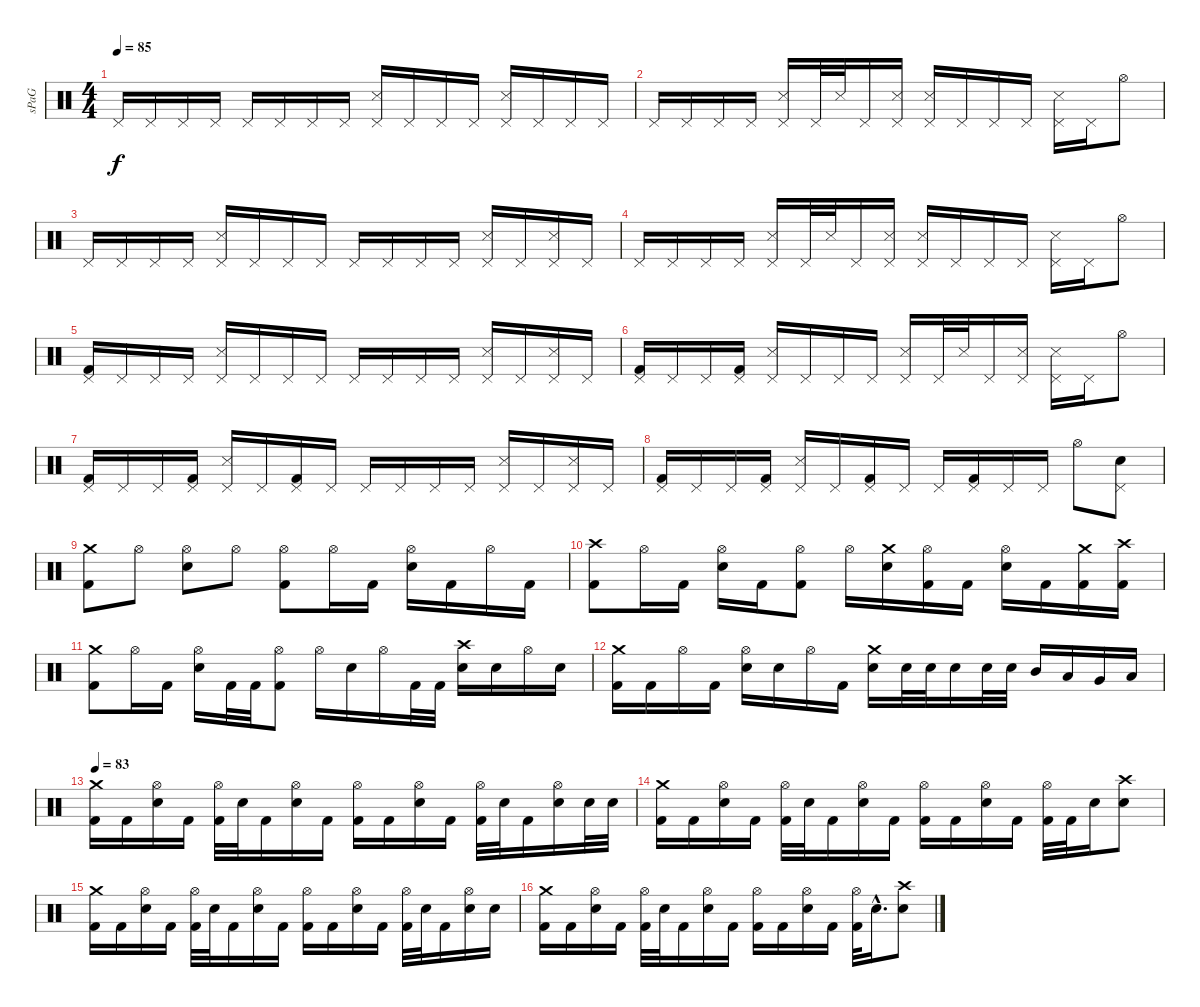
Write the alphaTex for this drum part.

\track ("sPaG" "sPaG") {instrument percussion}
\staff {score}
\articulation defaults
\ts (4 4)
\tempo 85
\clef neutral
\ks c "Pedal Hi-Hat (hit)".16{dy f} "Pedal Hi-Hat (hit)".16 "Pedal Hi-Hat (hit)".16 "Pedal Hi-Hat (hit)".16 "Pedal Hi-Hat (hit)".16 "Pedal Hi-Hat (hit)".16 "Pedal Hi-Hat (hit)".16 "Pedal Hi-Hat (hit)".16
("Pedal Hi-Hat (hit)" "Snare (side stick) 3").16 "Pedal Hi-Hat (hit)".16 "Pedal Hi-Hat (hit)".16 "Pedal Hi-Hat (hit)".16 ("Pedal Hi-Hat (hit)" "Snare (side stick) 3").16 "Pedal Hi-Hat (hit)".16 "Pedal Hi-Hat (hit)".16 "Pedal Hi-Hat (hit)".16 |
"Pedal Hi-Hat (hit)".16 "Pedal Hi-Hat (hit)".16 "Pedal Hi-Hat (hit)".16 "Pedal Hi-Hat (hit)".16 ("Pedal Hi-Hat (hit)" "Snare (side stick) 3").16 "Pedal Hi-Hat (hit)".32 "Snare (side stick) 3".32 "Pedal Hi-Hat (hit)".16 ("Pedal Hi-Hat (hit)" "Snare (side stick) 3").16 ("Pedal Hi-Hat (hit)" "Snare (side stick) 3").16 "Pedal Hi-Hat (hit)".16 "Pedal Hi-Hat (hit)".16 "Pedal Hi-Hat (hit)".16 ("Pedal Hi-Hat (hit)" "Snare (side stick) 3").16 "Pedal Hi-Hat (hit)".16 "Hi-Hat (open)".8 |
"Pedal Hi-Hat (hit)".16 "Pedal Hi-Hat (hit)".16 "Pedal Hi-Hat (hit)".16 "Pedal Hi-Hat (hit)".16 ("Pedal Hi-Hat (hit)" "Snare (side stick) 3").16 "Pedal Hi-Hat (hit)".16 "Pedal Hi-Hat (hit)".16 "Pedal Hi-Hat (hit)".16 "Pedal Hi-Hat (hit)".16 "Pedal Hi-Hat (hit)".16 "Pedal Hi-Hat (hit)".16 "Pedal Hi-Hat (hit)".16 ("Pedal Hi-Hat (hit)" "Snare (side stick) 3").16 "Pedal Hi-Hat (hit)".16 ("Pedal Hi-Hat (hit)" "Snare (side stick) 3").16 "Pedal Hi-Hat (hit)".16 |
"Pedal Hi-Hat (hit)".16 "Pedal Hi-Hat (hit)".16 "Pedal Hi-Hat (hit)".16 "Pedal Hi-Hat (hit)".16 ("Pedal Hi-Hat (hit)" "Snare (side stick) 3").16 "Pedal Hi-Hat (hit)".32 "Snare (side stick) 3".32 "Pedal Hi-Hat (hit)".16 ("Pedal Hi-Hat (hit)" "Snare (side stick) 3").16 ("Pedal Hi-Hat (hit)" "Snare (side stick) 3").16 "Pedal Hi-Hat (hit)".16 "Pedal Hi-Hat (hit)".16 "Pedal Hi-Hat (hit)".16 ("Pedal Hi-Hat (hit)" "Snare (side stick) 3").16 "Pedal Hi-Hat (hit)".16 "Hi-Hat (open)".8 |
("Pedal Hi-Hat (hit)" "Kick (hit) 2").16 "Pedal Hi-Hat (hit)".16 "Pedal Hi-Hat (hit)".16 "Pedal Hi-Hat (hit)".16 ("Pedal Hi-Hat (hit)" "Snare (side stick) 3").16 "Pedal Hi-Hat (hit)".16 "Pedal Hi-Hat (hit)".16 "Pedal Hi-Hat (hit)".16 "Pedal Hi-Hat (hit)".16 "Pedal Hi-Hat (hit)".16 "Pedal Hi-Hat (hit)".16 "Pedal Hi-Hat (hit)".16 ("Pedal Hi-Hat (hit)" "Snare (side stick) 3").16 "Pedal Hi-Hat (hit)".16 ("Pedal Hi-Hat (hit)" "Snare (side stick) 3").16 "Pedal Hi-Hat (hit)".16 |
("Pedal Hi-Hat (hit)" "Kick (hit) 2").16 "Pedal Hi-Hat (hit)".16 "Pedal Hi-Hat (hit)".16 ("Pedal Hi-Hat (hit)" "Kick (hit) 2").16 ("Pedal Hi-Hat (hit)" "Snare (side stick) 3").16 "Pedal Hi-Hat (hit)".16 "Pedal Hi-Hat (hit)".16 "Pedal Hi-Hat (hit)".16 ("Pedal Hi-Hat (hit)" "Snare (side stick) 3").16 "Pedal Hi-Hat (hit)".32 "Snare (side stick) 3".32 "Pedal Hi-Hat (hit)".16 ("Pedal Hi-Hat (hit)" "Snare (side stick) 3").16 ("Pedal Hi-Hat (hit)" "Snare (side stick) 3").16 "Pedal Hi-Hat (hit)".16 "Hi-Hat (open)".8 |
("Pedal Hi-Hat (hit)" "Kick (hit) 2").16 "Pedal Hi-Hat (hit)".16 "Pedal Hi-Hat (hit)".16 ("Pedal Hi-Hat (hit)" "Kick (hit) 2").16 ("Pedal Hi-Hat (hit)" "Snare (side stick) 3").16 "Pedal Hi-Hat (hit)".16 ("Pedal Hi-Hat (hit)" "Kick (hit) 2").16 "Pedal Hi-Hat (hit)".16 "Pedal Hi-Hat (hit)".16 "Pedal Hi-Hat (hit)".16 "Pedal Hi-Hat (hit)".16 "Pedal Hi-Hat (hit)".16 ("Pedal Hi-Hat (hit)" "Snare (side stick) 3").16 "Pedal Hi-Hat (hit)".16 ("Pedal Hi-Hat (hit)" "Snare (side stick) 3").16 "Pedal Hi-Hat (hit)".16 |
("Pedal Hi-Hat (hit)" "Kick (hit) 2").16 "Pedal Hi-Hat (hit)".16 "Pedal Hi-Hat (hit)".16 ("Pedal Hi-Hat (hit)" "Kick (hit) 2").16 ("Pedal Hi-Hat (hit)" "Snare (side stick) 3").16 "Pedal Hi-Hat (hit)".16 ("Pedal Hi-Hat (hit)" "Kick (hit) 2").16 "Pedal Hi-Hat (hit)".16 "Pedal Hi-Hat (hit)".16 ("Pedal Hi-Hat (hit)" "Kick (hit) 2").16 "Pedal Hi-Hat (hit)".16 "Pedal Hi-Hat (hit)".16 "Hi-Hat (open)".8 ("Pedal Hi-Hat (hit)" "Snare (hit) 2").8 |
("Crash medium (hit)" "Kick (hit) 2").8 "Hi-Hat (open)".8 ("Hi-Hat (open)" "Snare (hit) 2").8 "Hi-Hat (open)".8 ("Hi-Hat (open)" "Kick (hit) 2").8 "Hi-Hat (open)".16 "Kick (hit) 2".16 ("Hi-Hat (open)" "Snare (hit) 2").16 "Kick (hit) 2".16 "Hi-Hat (open)".16 "Kick (hit) 2".16 |
("Crash high (hit)" "Kick (hit) 2").8 "Hi-Hat (open)".16 "Kick (hit) 2".16 ("Hi-Hat (open)" "Snare (hit) 2").16 "Kick (hit) 2".16 ("Hi-Hat (open)" "Kick (hit) 2").8 "Hi-Hat (open)".16 ("Crash medium (hit)" "Snare (hit) 2").16 ("Hi-Hat (open)" "Kick (hit) 2").16 "Kick (hit) 2".16 ("Hi-Hat (open)" "Snare (hit) 2").16 "Kick (hit) 2".16 ("Crash medium (hit)" "Kick (hit) 2").16 ("Crash high (hit)" "Kick (hit) 2").16 |
("Crash medium (hit)" "Kick (hit) 2").8 "Hi-Hat (open)".16 "Kick (hit) 2".16 ("Hi-Hat (open)" "Snare (hit) 2").16 "Kick (hit) 2".32 "Kick (hit) 2".32 ("Hi-Hat (open)" "Kick (hit) 2").8 "Hi-Hat (open)".16 "Snare (hit) 2".16 "Hi-Hat (open)".16 "Kick (hit) 2".32 "Kick (hit) 2".32 ("Crash high (hit)" "Snare (hit) 2").16 "Snare (hit) 2".16 "Hi-Hat (open)".16 "Snare (hit) 2".16 |
("Crash medium (hit)" "Kick (hit) 2").16 "Kick (hit) 2".16 "Hi-Hat (open)".16 "Kick (hit) 2".16 ("Hi-Hat (open)" "Snare (hit) 2").16 "Snare (hit) 2".16 "Hi-Hat (open)".16 "Kick (hit) 2".16 ("Crash medium (hit)" "Snare (hit) 2").16 "Snare (hit) 2".32 "Snare (hit) 2".32 "Snare (hit) 2".16 "Snare (hit) 2".32 "Snare (hit) 2".32 "Mid Tom (hit)".16 "Low Tom (hit)".16 "Very Low Tom (hit)".16 "Low Floor Tom (hit)".16 |
\tempo 83
("Crash medium (hit)" "Kick (hit) 2").16 "Kick (hit) 2".16 ("Hi-Hat (open)" "Snare (hit) 2").16 "Kick (hit) 2".16 ("Hi-Hat (open)" "Kick (hit) 2").32 "Snare (hit) 2".32 "Kick (hit) 2".16 ("Hi-Hat (open)" "Snare (hit) 2").16 "Kick (hit) 2".16 ("Hi-Hat (open)" "Kick (hit) 2").16 "Kick (hit) 2".16 ("Hi-Hat (open)" "Snare (hit) 2").16 "Kick (hit) 2".16 ("Hi-Hat (open)" "Kick (hit) 2").32 "Snare (hit) 2".32 "Kick (hit) 2".16 ("Hi-Hat (open)" "Snare (hit) 2").16 "Snare (hit) 2".32 "Snare (hit) 2".32 |
("Crash medium (hit)" "Kick (hit) 2").16 "Kick (hit) 2".16 ("Hi-Hat (open)" "Snare (hit) 2").16 "Kick (hit) 2".16 ("Hi-Hat (open)" "Kick (hit) 2").32 "Snare (hit) 2".32 "Kick (hit) 2".16 ("Hi-Hat (open)" "Snare (hit) 2").16 "Kick (hit) 2".16 ("Hi-Hat (open)" "Kick (hit) 2").16 "Kick (hit) 2".16 ("Hi-Hat (open)" "Snare (hit) 2").16 "Kick (hit) 2".16 ("Hi-Hat (open)" "Kick (hit) 2").32 "Kick (hit) 2".32 "Snare (hit) 2".16 ("Crash high (hit)" "Snare (hit) 2").8 |
("Crash medium (hit)" "Kick (hit) 2").16 "Kick (hit) 2".16 ("Hi-Hat (open)" "Snare (hit) 2").16 "Kick (hit) 2".16 ("Hi-Hat (open)" "Kick (hit) 2").32 "Snare (hit) 2".32 "Kick (hit) 2".16 ("Hi-Hat (open)" "Snare (hit) 2").16 "Kick (hit) 2".16 ("Hi-Hat (open)" "Kick (hit) 2").16 "Kick (hit) 2".16 ("Hi-Hat (open)" "Snare (hit) 2").16 "Kick (hit) 2".16 ("Hi-Hat (open)" "Kick (hit) 2").32 "Snare (hit) 2".32 "Kick (hit) 2".16 ("Hi-Hat (open)" "Snare (hit) 2").16 "Snare (hit) 2".16 |
("Crash medium (hit)" "Kick (hit) 2").16 "Kick (hit) 2".16 ("Hi-Hat (open)" "Snare (hit) 2").16 "Kick (hit) 2".16 ("Hi-Hat (open)" "Kick (hit) 2").32 "Snare (hit) 2".32 "Kick (hit) 2".16 ("Hi-Hat (open)" "Snare (hit) 2").16 "Kick (hit) 2".16 ("Hi-Hat (open)" "Kick (hit) 2").16 "Kick (hit) 2".16 ("Hi-Hat (open)" "Snare (hit) 2").16 "Kick (hit) 2".16 ("Hi-Hat (open)" "Kick (hit) 2").32 "Snare (hit) 2"{hac}.16{d} ("Crash high (hit)" "Snare (hit) 2").8
